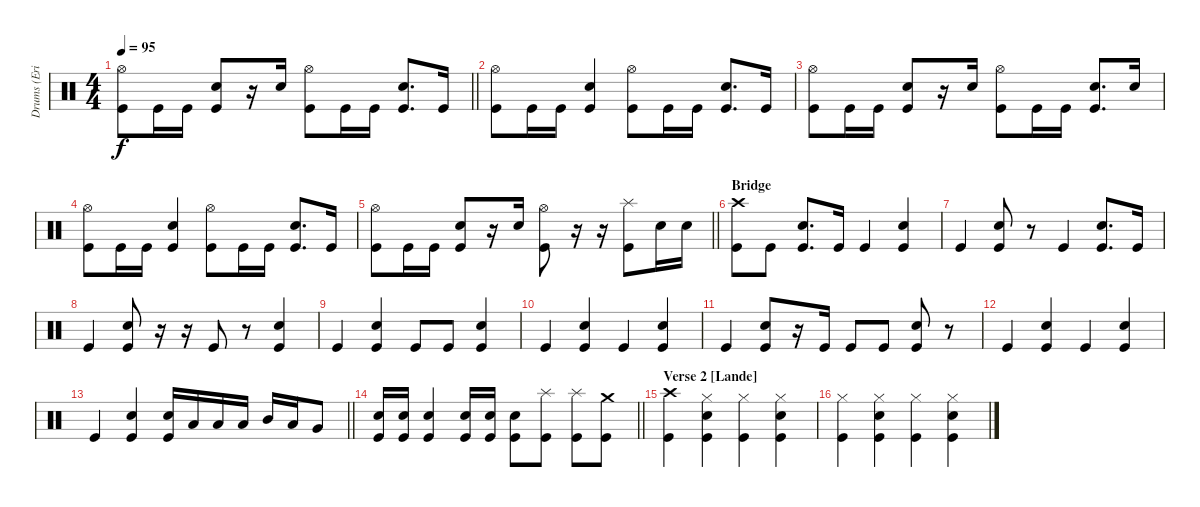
\track ("Drums (Eric Singer)" "Drums (Eri") {instrument percussion}
\staff {score}
\articulation defaults
\ts (4 4)
\tempo 95
\clef neutral
\barLineRight lightlight
\ks c
("Kick (hit)" "Hi-Hat (open)").8{dy f} "Kick (hit)".16 "Kick (hit)".16 ("Snare (hit) 2" "Kick (hit)").8 r.16 "Snare (hit) 2".16 ("Kick (hit)" "Hi-Hat (open)").8 "Kick (hit)".16 "Kick (hit)".16 ("Snare (hit) 2" "Kick (hit)").8{d} "Kick (hit)".16 |
("Kick (hit)" "Hi-Hat (open)").8 "Kick (hit)".16 "Kick (hit)".16 ("Snare (hit) 2" "Kick (hit)").4 ("Kick (hit)" "Hi-Hat (open)").8 "Kick (hit)".16 "Kick (hit)".16 ("Snare (hit) 2" "Kick (hit)").8{d} "Kick (hit)".16 |
("Kick (hit)" "Hi-Hat (open)").8 "Kick (hit)".16 "Kick (hit)".16 ("Snare (hit) 2" "Kick (hit)").8 r.16 "Snare (hit) 2".16 ("Kick (hit)" "Hi-Hat (open)").8 "Kick (hit)".16 "Kick (hit)".16 ("Snare (hit) 2" "Kick (hit)").8{d} "Snare (hit) 2".16 |
("Kick (hit)" "Hi-Hat (open)").8 "Kick (hit)".16 "Kick (hit)".16 ("Snare (hit) 2" "Kick (hit)").4 ("Kick (hit)" "Hi-Hat (open)").8 "Kick (hit)".16 "Kick (hit)".16 ("Snare (hit) 2" "Kick (hit)").8{d} "Kick (hit)".16 |
\barLineRight lightlight
("Kick (hit)" "Hi-Hat (open)").8 "Kick (hit)".16 "Kick (hit)".16 ("Snare (hit) 2" "Kick (hit)").8 r.16 "Snare (hit) 2".16 ("Kick (hit)" "Hi-Hat (open)").8 r.16 r.16 ("Kick (hit)" "Splash (hit)").8 "Snare (hit) 2".16 "Snare (hit) 2".16 |
\section ("" "Bridge")
("Crash high (hit)" "Kick (hit)").8 "Kick (hit)".8 ("Snare (hit) 2" "Kick (hit)").8{d} "Kick (hit)".16 "Kick (hit)".4 ("Snare (hit) 2" "Kick (hit)").4 |
"Kick (hit)".4 ("Snare (hit) 2" "Kick (hit)").8 r.8 "Kick (hit)".4 ("Snare (hit) 2" "Kick (hit)").8{d} "Kick (hit)".16 |
"Kick (hit)".4 ("Snare (hit) 2" "Kick (hit)").8 r.16 r.16 "Kick (hit)".8 r.8 ("Snare (hit) 2" "Kick (hit)").4 |
"Kick (hit)".4 ("Snare (hit) 2" "Kick (hit)").4 "Kick (hit)".8 "Kick (hit)".8 ("Snare (hit) 2" "Kick (hit)").4 |
"Kick (hit)".4 ("Snare (hit) 2" "Kick (hit)").4 "Kick (hit)".4 ("Snare (hit) 2" "Kick (hit)").4 |
"Kick (hit)".4 ("Snare (hit) 2" "Kick (hit)").8 r.16 "Kick (hit)".16 "Kick (hit)".8 "Kick (hit)".8 ("Snare (hit) 2" "Kick (hit)").8 r.8 |
"Kick (hit)".4 ("Snare (hit) 2" "Kick (hit)").4 "Kick (hit)".4 ("Snare (hit) 2" "Kick (hit)").4 |
\barLineRight lightlight "Kick (hit)".4
("Snare (hit) 2" "Kick (hit)").4 ("Snare (hit) 2" "Kick (hit)").16 "Low Tom (hit)".16 "Low Tom (hit)".16 "Low Tom (hit)".16 "Mid Tom (hit)".16 "Low Tom (hit)".16 "Very Low Tom (hit)".8 |
\barLineRight lightlight
("Snare (hit) 2" "Kick (hit)").16 ("Snare (hit) 2" "Kick (hit)").16 ("Snare (hit) 2" "Kick (hit)").4 ("Snare (hit) 2" "Kick (hit)").16 ("Snare (hit) 2" "Kick (hit)").16 ("Snare (hit) 2" "Kick (hit)").8 ("Splash (hit)" "Kick (hit)").8 ("Splash (hit)" "Kick (hit)").8 ("Crash medium (hit)" "Kick (hit)").8 |
\section ("" "Verse 2 [Lande]")
("Crash high (hit)" "Kick (hit)").4 ("Snare (hit) 2" "Kick (hit)" "Hi-Hat (closed)").4 ("Kick (hit)" "Hi-Hat (closed)").4 ("Snare (hit) 2" "Kick (hit)" "Hi-Hat (closed)").4 |
("Kick (hit)" "Hi-Hat (closed)").4 ("Snare (hit) 2" "Kick (hit)" "Hi-Hat (closed)").4 ("Kick (hit)" "Hi-Hat (closed)").4 ("Snare (hit) 2" "Kick (hit)" "Hi-Hat (closed)").4
